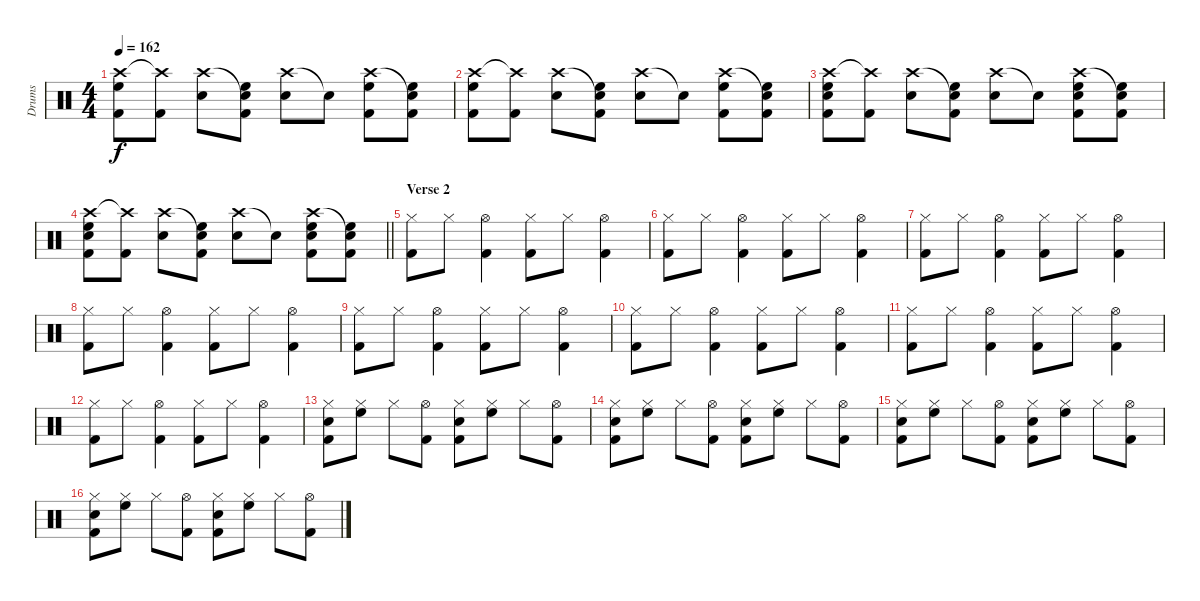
\track ("Drums" "Drums") {instrument percussion}
\staff {score}
\articulation defaults
\ts (4 4)
\tempo 162
\clef neutral
\ks c
("Crash high (hit)" "High Floor Tom (hit)" "Kick (hit) 2").8{dy f} ("Crash high (hit)"{t} "Kick (hit) 2").8 ("Crash high (hit)" "Snare (hit) 2").8 ("Snare (hit)"{t} "High Floor Tom (hit)" "Kick (hit) 2").8 ("Crash high (hit)" "Snare (hit) 2").8 "Snare (hit)"{t}.8 ("Crash high (hit)" "High Floor Tom (hit)" "Kick (hit) 2").8 ("Snare (hit)"{t} "High Floor Tom (hit)" "Kick (hit) 2").8 |
("Crash high (hit)" "High Floor Tom (hit)" "Kick (hit) 2").8 ("Crash high (hit)"{t} "Kick (hit) 2").8 ("Crash high (hit)" "Snare (hit) 2").8 ("Snare (hit)"{t} "High Floor Tom (hit)" "Kick (hit) 2").8 ("Crash high (hit)" "Snare (hit) 2").8 "Snare (hit)"{t}.8 ("Crash high (hit)" "High Floor Tom (hit)" "Kick (hit) 2").8 ("Snare (hit)"{t} "High Floor Tom (hit)" "Kick (hit) 2").8 |
("Crash high (hit)" "Snare (hit) 2" "High Floor Tom (hit)" "Kick (hit) 2").8 ("Crash high (hit)"{t} "Kick (hit) 2").8 ("Crash high (hit)" "Snare (hit) 2").8 ("Snare (hit)"{t} "High Floor Tom (hit)" "Kick (hit) 2").8 ("Crash high (hit)" "Snare (hit) 2").8 "Snare (hit)"{t}.8 ("Crash high (hit)" "Snare (hit) 2" "High Floor Tom (hit)" "Kick (hit) 2").8 ("Snare (hit)"{t} "High Floor Tom (hit)" "Kick (hit) 2").8 |
\barLineRight lightlight
("Crash high (hit)" "Snare (hit) 2" "High Floor Tom (hit)" "Kick (hit) 2").8 ("Crash high (hit)"{t} "Kick (hit) 2").8 ("Crash high (hit)" "Snare (hit) 2").8 ("Snare (hit)"{t} "High Floor Tom (hit)" "Kick (hit) 2").8 ("Crash high (hit)" "Snare (hit) 2").8 "Snare (hit)"{t}.8 ("Crash high (hit)" "Snare (hit) 2" "High Floor Tom (hit)" "Kick (hit) 2").8 ("Snare (hit)"{t} "High Floor Tom (hit)" "Kick (hit) 2").8 |
\section ("" "Verse 2")
("Hi-Hat (closed)" "Kick (hit) 2").8 "Hi-Hat (closed)".8 ("Hi-Hat (open)" "Kick (hit) 2").4 ("Hi-Hat (closed)" "Kick (hit) 2").8 "Hi-Hat (closed)".8 ("Hi-Hat (open)" "Kick (hit) 2").4 |
("Hi-Hat (closed)" "Kick (hit) 2").8 "Hi-Hat (closed)".8 ("Hi-Hat (open)" "Kick (hit) 2").4 ("Hi-Hat (closed)" "Kick (hit) 2").8 "Hi-Hat (closed)".8 ("Hi-Hat (open)" "Kick (hit) 2").4 |
("Hi-Hat (closed)" "Kick (hit) 2").8 "Hi-Hat (closed)".8 ("Hi-Hat (open)" "Kick (hit) 2").4 ("Hi-Hat (closed)" "Kick (hit) 2").8 "Hi-Hat (closed)".8 ("Hi-Hat (open)" "Kick (hit) 2").4 |
("Hi-Hat (closed)" "Kick (hit) 2").8 "Hi-Hat (closed)".8 ("Hi-Hat (open)" "Kick (hit) 2").4 ("Hi-Hat (closed)" "Kick (hit) 2").8 "Hi-Hat (closed)".8 ("Hi-Hat (open)" "Kick (hit) 2").4 |
("Hi-Hat (closed)" "Kick (hit) 2").8 "Hi-Hat (closed)".8 ("Hi-Hat (open)" "Kick (hit) 2").4 ("Hi-Hat (closed)" "Kick (hit) 2").8 "Hi-Hat (closed)".8 ("Hi-Hat (open)" "Kick (hit) 2").4 |
("Hi-Hat (closed)" "Kick (hit) 2").8 "Hi-Hat (closed)".8 ("Hi-Hat (open)" "Kick (hit) 2").4 ("Hi-Hat (closed)" "Kick (hit) 2").8 "Hi-Hat (closed)".8 ("Hi-Hat (open)" "Kick (hit) 2").4 |
("Hi-Hat (closed)" "Kick (hit) 2").8 "Hi-Hat (closed)".8 ("Hi-Hat (open)" "Kick (hit) 2").4 ("Hi-Hat (closed)" "Kick (hit) 2").8 "Hi-Hat (closed)".8 ("Hi-Hat (open)" "Kick (hit) 2").4 |
("Hi-Hat (closed)" "Kick (hit) 2").8 "Hi-Hat (closed)".8 ("Hi-Hat (open)" "Kick (hit) 2").4 ("Hi-Hat (closed)" "Kick (hit) 2").8 "Hi-Hat (closed)".8 ("Hi-Hat (open)" "Kick (hit) 2").4 |
("Hi-Hat (closed)" "Snare (hit) 2" "Kick (hit) 2").8 ("Hi-Hat (closed)" "High Floor Tom (hit)").8 "Hi-Hat (closed)".8 ("Hi-Hat (open)" "Kick (hit) 2").8 ("Hi-Hat (closed)" "Snare (hit) 2" "Kick (hit) 2").8 ("Hi-Hat (closed)" "High Floor Tom (hit)").8 "Hi-Hat (closed)".8 ("Hi-Hat (open)" "Kick (hit) 2").8 |
("Hi-Hat (closed)" "Snare (hit) 2" "Kick (hit) 2").8 ("Hi-Hat (closed)" "High Floor Tom (hit)").8 "Hi-Hat (closed)".8 ("Hi-Hat (open)" "Kick (hit) 2").8 ("Hi-Hat (closed)" "Snare (hit) 2" "Kick (hit) 2").8 ("Hi-Hat (closed)" "High Floor Tom (hit)").8 "Hi-Hat (closed)".8 ("Hi-Hat (open)" "Kick (hit) 2").8 |
("Hi-Hat (closed)" "Snare (hit) 2" "Kick (hit) 2").8 ("Hi-Hat (closed)" "High Floor Tom (hit)").8 "Hi-Hat (closed)".8 ("Hi-Hat (open)" "Kick (hit) 2").8 ("Hi-Hat (closed)" "Snare (hit) 2" "Kick (hit) 2").8 ("Hi-Hat (closed)" "High Floor Tom (hit)").8 "Hi-Hat (closed)".8 ("Hi-Hat (open)" "Kick (hit) 2").8 |
("Hi-Hat (closed)" "Snare (hit) 2" "Kick (hit) 2").8 ("Hi-Hat (closed)" "High Floor Tom (hit)").8 "Hi-Hat (closed)".8 ("Hi-Hat (open)" "Kick (hit) 2").8 ("Hi-Hat (closed)" "Snare (hit) 2" "Kick (hit) 2").8 ("Hi-Hat (closed)" "High Floor Tom (hit)").8 "Hi-Hat (closed)".8 ("Hi-Hat (open)" "Kick (hit) 2").8
